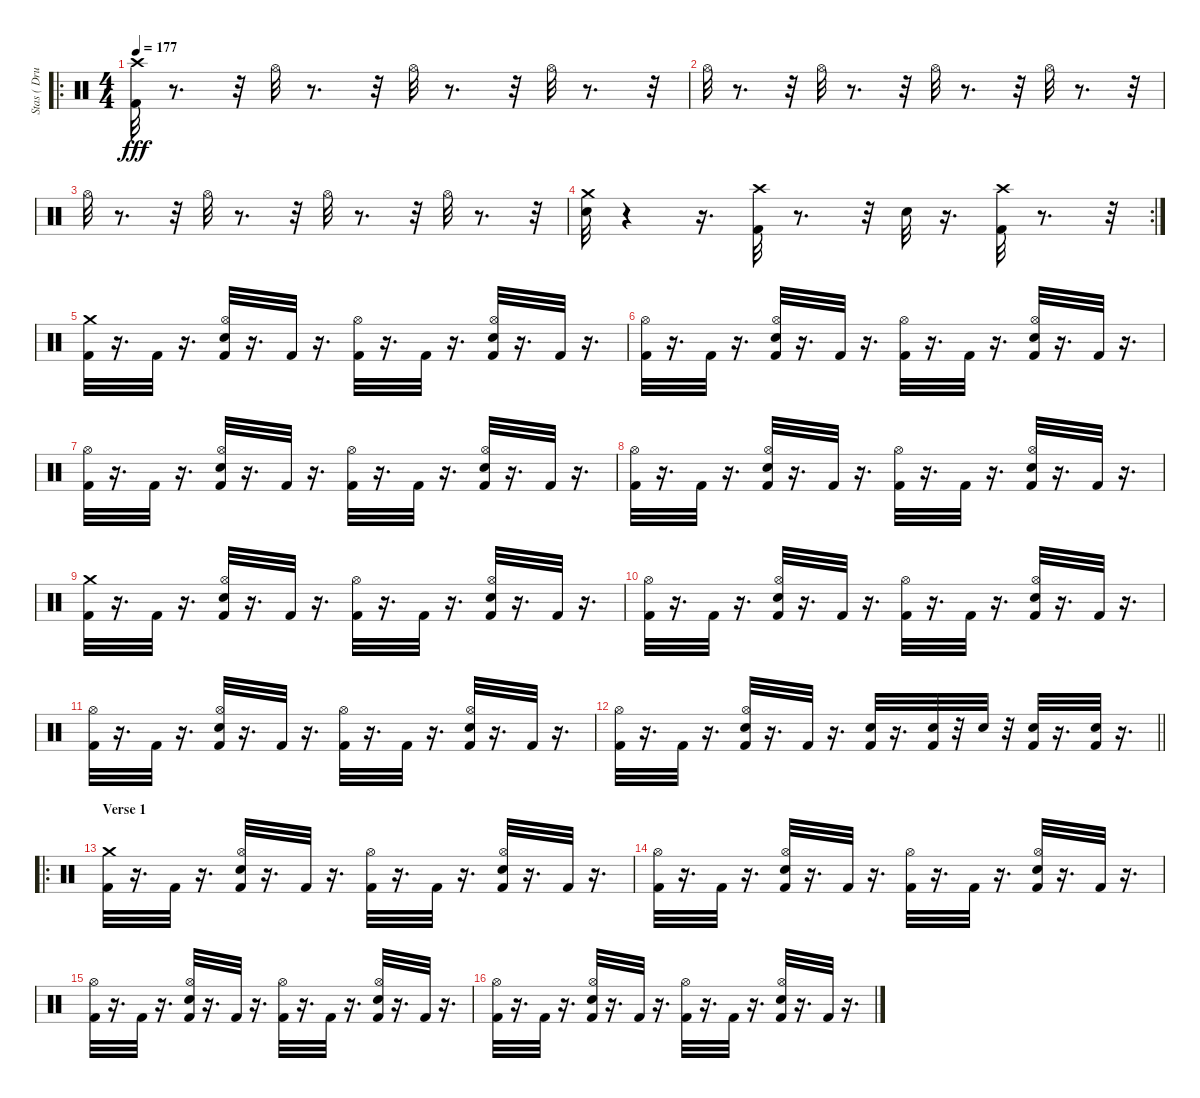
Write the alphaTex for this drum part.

\track ("Stas ( Drums )" "Stas ( Dru") {instrument percussion}
\staff {score}
\articulation defaults
\ro
\ts (4 4)
\tempo 177
\clef neutral
\ks c
("Kick (hit) 2" "Crash high (hit)").32{dy fff} r.8{d} r.32 "Hi-Hat (open)".32 r.8{d} r.32 "Hi-Hat (open)".32 r.8{d} r.32 "Hi-Hat (open)".32 r.8{d} r.32 |
"Hi-Hat (open)".32 r.8{d} r.32 "Hi-Hat (open)".32 r.8{d} r.32 "Hi-Hat (open)".32 r.8{d} r.32 "Hi-Hat (open)".32 r.8{d} r.32 |
"Hi-Hat (open)".32 r.8{d} r.32 "Hi-Hat (open)".32 r.8{d} r.32 "Hi-Hat (open)".32 r.8{d} r.32 "Hi-Hat (open)".32 r.8{d} r.32 |
\rc 2
("Electric Snare (hit)" "Crash medium (hit)").32 r.4 r.16{d} ("Kick (hit) 2" "Crash high (hit)").32 r.8{d} r.32 "Electric Snare (hit)".32 r.16{d} ("Kick (hit) 2" "Crash high (hit)").32 r.8{d} r.32 |
("Kick (hit) 2" "Crash medium (hit)").32 r.16{d} "Kick (hit) 2".32 r.16{d} ("Kick (hit) 2" "Electric Snare (hit)" "Hi-Hat (open)").32 r.16{d} "Kick (hit) 2".32 r.16{d} ("Kick (hit) 2" "Hi-Hat (open)").32 r.16{d} "Kick (hit) 2".32 r.16{d} ("Kick (hit) 2" "Electric Snare (hit)" "Hi-Hat (open)").32 r.16{d} "Kick (hit) 2".32 r.16{d} |
("Kick (hit) 2" "Hi-Hat (open)").32 r.16{d} "Kick (hit) 2".32 r.16{d} ("Kick (hit) 2" "Electric Snare (hit)" "Hi-Hat (open)").32 r.16{d} "Kick (hit) 2".32 r.16{d} ("Kick (hit) 2" "Hi-Hat (open)").32 r.16{d} "Kick (hit) 2".32 r.16{d} ("Kick (hit) 2" "Electric Snare (hit)" "Hi-Hat (open)").32 r.16{d} "Kick (hit) 2".32 r.16{d} |
("Kick (hit) 2" "Hi-Hat (open)").32 r.16{d} "Kick (hit) 2".32 r.16{d} ("Kick (hit) 2" "Electric Snare (hit)" "Hi-Hat (open)").32 r.16{d} "Kick (hit) 2".32 r.16{d} ("Kick (hit) 2" "Hi-Hat (open)").32 r.16{d} "Kick (hit) 2".32 r.16{d} ("Kick (hit) 2" "Electric Snare (hit)" "Hi-Hat (open)").32 r.16{d} "Kick (hit) 2".32 r.16{d} |
("Kick (hit) 2" "Hi-Hat (open)").32 r.16{d} "Kick (hit) 2".32 r.16{d} ("Kick (hit) 2" "Electric Snare (hit)" "Hi-Hat (open)").32 r.16{d} "Kick (hit) 2".32 r.16{d} ("Kick (hit) 2" "Hi-Hat (open)").32 r.16{d} "Kick (hit) 2".32 r.16{d} ("Kick (hit) 2" "Electric Snare (hit)" "Hi-Hat (open)").32 r.16{d} "Kick (hit) 2".32 r.16{d} |
("Kick (hit) 2" "Crash medium (hit)").32 r.16{d} "Kick (hit) 2".32 r.16{d} ("Kick (hit) 2" "Electric Snare (hit)" "Hi-Hat (open)").32 r.16{d} "Kick (hit) 2".32 r.16{d} ("Kick (hit) 2" "Hi-Hat (open)").32 r.16{d} "Kick (hit) 2".32 r.16{d} ("Kick (hit) 2" "Electric Snare (hit)" "Hi-Hat (open)").32 r.16{d} "Kick (hit) 2".32 r.16{d} |
("Kick (hit) 2" "Hi-Hat (open)").32 r.16{d} "Kick (hit) 2".32 r.16{d} ("Kick (hit) 2" "Electric Snare (hit)" "Hi-Hat (open)").32 r.16{d} "Kick (hit) 2".32 r.16{d} ("Kick (hit) 2" "Hi-Hat (open)").32 r.16{d} "Kick (hit) 2".32 r.16{d} ("Kick (hit) 2" "Electric Snare (hit)" "Hi-Hat (open)").32 r.16{d} "Kick (hit) 2".32 r.16{d} |
("Kick (hit) 2" "Hi-Hat (open)").32 r.16{d} "Kick (hit) 2".32 r.16{d} ("Kick (hit) 2" "Electric Snare (hit)" "Hi-Hat (open)").32 r.16{d} "Kick (hit) 2".32 r.16{d} ("Kick (hit) 2" "Hi-Hat (open)").32 r.16{d} "Kick (hit) 2".32 r.16{d} ("Kick (hit) 2" "Electric Snare (hit)" "Hi-Hat (open)").32 r.16{d} "Kick (hit) 2".32 r.16{d} |
\barLineRight lightlight
("Kick (hit) 2" "Hi-Hat (open)").32 r.16{d} "Kick (hit) 2".32 r.16{d} ("Kick (hit) 2" "Electric Snare (hit)" "Hi-Hat (open)").32 r.16{d} "Kick (hit) 2".32 r.16{d} ("Kick (hit) 2" "Electric Snare (hit)").32 r.16{d} ("Kick (hit) 2" "Electric Snare (hit)").32 r.32 "Electric Snare (hit)".32 r.32 ("Kick (hit) 2" "Electric Snare (hit)").32 r.16{d} ("Kick (hit) 2" "Electric Snare (hit)").32 r.16{d} |
\ro
\section ("" "Verse 1")
("Kick (hit) 2" "Crash medium (hit)").32 r.16{d} "Kick (hit) 2".32 r.16{d} ("Kick (hit) 2" "Electric Snare (hit)" "Hi-Hat (open)").32 r.16{d} "Kick (hit) 2".32 r.16{d} ("Kick (hit) 2" "Hi-Hat (open)").32 r.16{d} "Kick (hit) 2".32 r.16{d} ("Kick (hit) 2" "Electric Snare (hit)" "Hi-Hat (open)").32 r.16{d} "Kick (hit) 2".32 r.16{d} |
("Kick (hit) 2" "Hi-Hat (open)").32 r.16{d} "Kick (hit) 2".32 r.16{d} ("Kick (hit) 2" "Electric Snare (hit)" "Hi-Hat (open)").32 r.16{d} "Kick (hit) 2".32 r.16{d} ("Kick (hit) 2" "Hi-Hat (open)").32 r.16{d} "Kick (hit) 2".32 r.16{d} ("Kick (hit) 2" "Electric Snare (hit)" "Hi-Hat (open)").32 r.16{d} "Kick (hit) 2".32 r.16{d} |
("Kick (hit) 2" "Hi-Hat (open)").32 r.16{d} "Kick (hit) 2".32 r.16{d} ("Kick (hit) 2" "Electric Snare (hit)" "Hi-Hat (open)").32 r.16{d} "Kick (hit) 2".32 r.16{d} ("Kick (hit) 2" "Hi-Hat (open)").32 r.16{d} "Kick (hit) 2".32 r.16{d} ("Kick (hit) 2" "Electric Snare (hit)" "Hi-Hat (open)").32 r.16{d} "Kick (hit) 2".32 r.16{d} |
("Kick (hit) 2" "Hi-Hat (open)").32 r.16{d} "Kick (hit) 2".32 r.16{d} ("Kick (hit) 2" "Electric Snare (hit)" "Hi-Hat (open)").32 r.16{d} "Kick (hit) 2".32 r.16{d} ("Kick (hit) 2" "Hi-Hat (open)").32 r.16{d} "Kick (hit) 2".32 r.16{d} ("Kick (hit) 2" "Electric Snare (hit)" "Hi-Hat (open)").32 r.16{d} "Kick (hit) 2".32 r.16{d}
